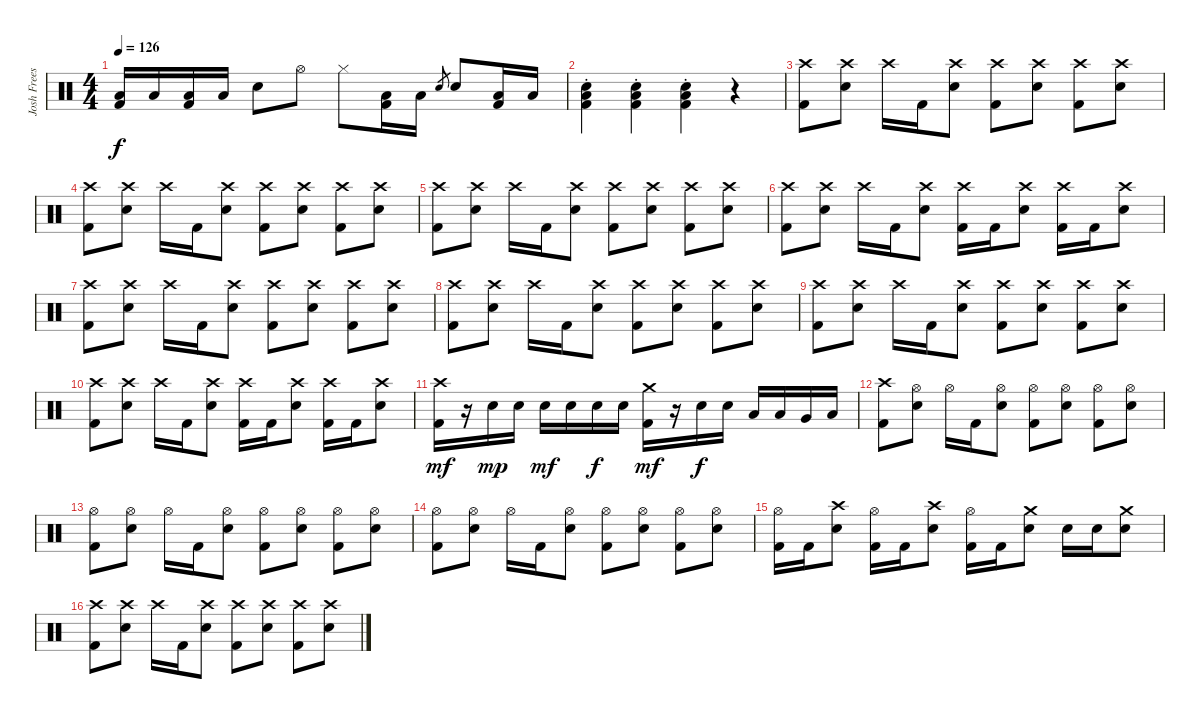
\track ("Josh Freese" "Josh Frees") {instrument percussion}
\staff {score}
\articulation defaults
\ts (4 4)
\tempo 126
\clef neutral
\ks c
("Low Floor Tom (hit)" "Kick (hit) 2").16{dy f} "Low Floor Tom (hit)".16 ("Low Floor Tom (hit)" "Kick (hit) 2").16 "Low Floor Tom (hit)".16 "Snare (hit) 2".8 "Hi-Hat (open)".8 "Hi-Hat (closed)".8 ("Low Floor Tom (hit)" "Kick (hit) 2").16 "Low Floor Tom (hit)".16 "Snare (hit) 2".8{gr} "Snare (hit) 2".8 ("Low Floor Tom (hit)" "Kick (hit) 2").16 "Low Floor Tom (hit)".16 |
("Snare (hit) 2"{st} "Low Floor Tom (hit)"{st} "Kick (hit) 2"{st}).4 ("Snare (hit) 2"{st} "Low Floor Tom (hit)"{st} "Kick (hit) 2"{st}).4 ("Snare (hit) 2"{st} "Low Floor Tom (hit)"{st} "Kick (hit) 2"{st}).4 r.4 |
("Crash high (hit)" "Kick (hit) 2").8 ("Crash high (hit)" "Snare (hit) 2").8 "Crash high (hit)".16 "Kick (hit) 2".16 ("Crash high (hit)" "Snare (hit) 2").8 ("Crash high (hit)" "Kick (hit) 2").8 ("Crash high (hit)" "Snare (hit) 2").8 ("Crash high (hit)" "Kick (hit) 2").8 ("Crash high (hit)" "Snare (hit) 2").8 |
("Crash high (hit)" "Kick (hit) 2").8 ("Crash high (hit)" "Snare (hit) 2").8 "Crash high (hit)".16 "Kick (hit) 2".16 ("Crash high (hit)" "Snare (hit) 2").8 ("Crash high (hit)" "Kick (hit) 2").8 ("Crash high (hit)" "Snare (hit) 2").8 ("Crash high (hit)" "Kick (hit) 2").8 ("Crash high (hit)" "Snare (hit) 2").8 |
("Crash high (hit)" "Kick (hit) 2").8 ("Crash high (hit)" "Snare (hit) 2").8 "Crash high (hit)".16 "Kick (hit) 2".16 ("Crash high (hit)" "Snare (hit) 2").8 ("Crash high (hit)" "Kick (hit) 2").8 ("Crash high (hit)" "Snare (hit) 2").8 ("Crash high (hit)" "Kick (hit) 2").8 ("Crash high (hit)" "Snare (hit) 2").8 |
("Crash high (hit)" "Kick (hit) 2").8 ("Crash high (hit)" "Snare (hit) 2").8 "Crash high (hit)".16 "Kick (hit) 2".16 ("Crash high (hit)" "Snare (hit) 2").8 ("Crash high (hit)" "Kick (hit) 2").16 "Kick (hit) 2".16 ("Crash high (hit)" "Snare (hit) 2").8 ("Crash high (hit)" "Kick (hit) 2").16 "Kick (hit) 2".16 ("Crash high (hit)" "Snare (hit) 2").8 |
("Crash high (hit)" "Kick (hit) 2").8 ("Crash high (hit)" "Snare (hit) 2").8 "Crash high (hit)".16 "Kick (hit) 2".16 ("Crash high (hit)" "Snare (hit) 2").8 ("Crash high (hit)" "Kick (hit) 2").8 ("Crash high (hit)" "Snare (hit) 2").8 ("Crash high (hit)" "Kick (hit) 2").8 ("Crash high (hit)" "Snare (hit) 2").8 |
("Crash high (hit)" "Kick (hit) 2").8 ("Crash high (hit)" "Snare (hit) 2").8 "Crash high (hit)".16 "Kick (hit) 2".16 ("Crash high (hit)" "Snare (hit) 2").8 ("Crash high (hit)" "Kick (hit) 2").8 ("Crash high (hit)" "Snare (hit) 2").8 ("Crash high (hit)" "Kick (hit) 2").8 ("Crash high (hit)" "Snare (hit) 2").8 |
("Crash high (hit)" "Kick (hit) 2").8 ("Crash high (hit)" "Snare (hit) 2").8 "Crash high (hit)".16 "Kick (hit) 2".16 ("Crash high (hit)" "Snare (hit) 2").8 ("Crash high (hit)" "Kick (hit) 2").8 ("Crash high (hit)" "Snare (hit) 2").8 ("Crash high (hit)" "Kick (hit) 2").8 ("Crash high (hit)" "Snare (hit) 2").8 |
("Crash high (hit)" "Kick (hit) 2").8 ("Crash high (hit)" "Snare (hit) 2").8 "Crash high (hit)".16 "Kick (hit) 2".16 ("Crash high (hit)" "Snare (hit) 2").8 ("Crash high (hit)" "Kick (hit) 2").16 "Kick (hit) 2".16 ("Crash high (hit)" "Snare (hit) 2").8 ("Crash high (hit)" "Kick (hit) 2").16 "Kick (hit) 2".16 ("Crash high (hit)" "Snare (hit) 2").8 |
("Crash high (hit)" "Kick (hit) 2").16{dy mf} r.16 "Snare (hit) 2".16{dy mp} "Snare (hit) 2".16 "Snare (hit) 2".16{dy mf} "Snare (hit) 2".16 "Snare (hit) 2".16{dy f} "Snare (hit) 2".16 ("Crash medium (hit)" "Kick (hit) 2").16{dy mf} r.16 "Snare (hit) 2".16{dy f} "Snare (hit) 2".16 "Low Tom (hit)".16 "Low Tom (hit)".16 "Very Low Tom (hit)".16 "Low Floor Tom (hit)".16 |
("Crash high (hit)" "Kick (hit) 2").8 ("Hi-Hat (open)" "Snare (hit) 2").8 "Hi-Hat (open)".16 "Kick (hit) 2".16 ("Hi-Hat (open)" "Snare (hit) 2").8 ("Hi-Hat (open)" "Kick (hit) 2").8 ("Hi-Hat (open)" "Snare (hit) 2").8 ("Hi-Hat (open)" "Kick (hit) 2").8 ("Hi-Hat (open)" "Snare (hit) 2").8 |
("Hi-Hat (open)" "Kick (hit) 2").8 ("Hi-Hat (open)" "Snare (hit) 2").8 "Hi-Hat (open)".16 "Kick (hit) 2".16 ("Hi-Hat (open)" "Snare (hit) 2").8 ("Hi-Hat (open)" "Kick (hit) 2").8 ("Hi-Hat (open)" "Snare (hit) 2").8 ("Hi-Hat (open)" "Kick (hit) 2").8 ("Hi-Hat (open)" "Snare (hit) 2").8 |
("Hi-Hat (open)" "Kick (hit) 2").8 ("Hi-Hat (open)" "Snare (hit) 2").8 "Hi-Hat (open)".16 "Kick (hit) 2".16 ("Hi-Hat (open)" "Snare (hit) 2").8 ("Hi-Hat (open)" "Kick (hit) 2").8 ("Hi-Hat (open)" "Snare (hit) 2").8 ("Hi-Hat (open)" "Kick (hit) 2").8 ("Hi-Hat (open)" "Snare (hit) 2").8 |
("Hi-Hat (open)" "Kick (hit) 2").16 "Kick (hit) 2".16 ("Crash high (hit)" "Snare (hit) 2").8 ("Hi-Hat (open)" "Kick (hit) 2").16 "Kick (hit) 2".16 ("Crash high (hit)" "Snare (hit) 2").8 ("Hi-Hat (open)" "Kick (hit) 2").16 "Kick (hit) 2".16 ("Crash medium (hit)" "Snare (hit) 2").8 "Snare (hit) 2".16 "Snare (hit) 2".16 ("Crash medium (hit)" "Snare (hit) 2").8 |
("Crash high (hit)" "Kick (hit) 2").8 ("Crash high (hit)" "Snare (hit) 2").8 "Crash high (hit)".16 "Kick (hit) 2".16 ("Crash high (hit)" "Snare (hit) 2").8 ("Crash high (hit)" "Kick (hit) 2").8 ("Crash high (hit)" "Snare (hit) 2").8 ("Crash high (hit)" "Kick (hit) 2").8 ("Crash high (hit)" "Snare (hit) 2").8
